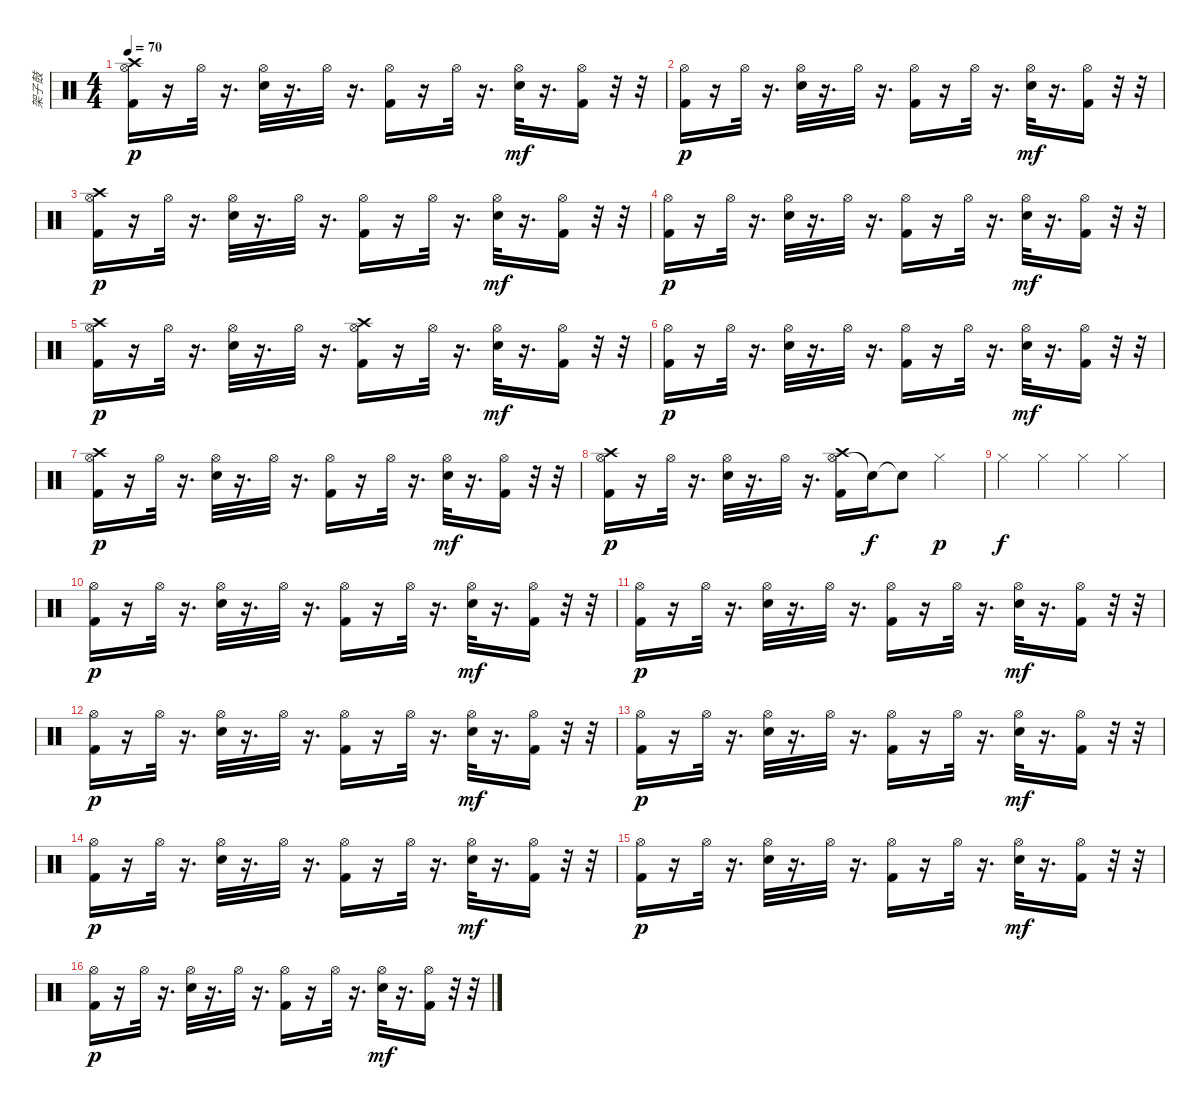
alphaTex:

\track ("架子鼓" "架子鼓") {instrument percussion}
\staff {score}
\articulation defaults
\ts (4 4)
\tempo 70
\clef neutral
\ks c
("Hi-Hat (open)" "Kick (hit) 2" "Crash high (hit)").16{dy p} r.16 "Hi-Hat (open)".32 r.16{d} ("Hi-Hat (open)" "Snare (hit) 2").32 r.16{d} "Hi-Hat (open)".32 r.16{d} ("Hi-Hat (open)" "Kick (hit) 2").16 r.16 "Hi-Hat (open)".32 r.16{d} ("Hi-Hat (open)" "Snare (hit) 2").32{dy mf} r.16{d} ("Hi-Hat (open)" "Kick (hit) 2").16 r.32 r.32 |
("Hi-Hat (open)" "Kick (hit) 2").16{dy p} r.16 "Hi-Hat (open)".32 r.16{d} ("Hi-Hat (open)" "Snare (hit) 2").32 r.16{d} "Hi-Hat (open)".32 r.16{d} ("Hi-Hat (open)" "Kick (hit) 2").16 r.16 "Hi-Hat (open)".32 r.16{d} ("Hi-Hat (open)" "Snare (hit) 2").32{dy mf} r.16{d} ("Hi-Hat (open)" "Kick (hit) 2").16 r.32 r.32 |
("Hi-Hat (open)" "Kick (hit) 2" "Crash high (hit)").16{dy p} r.16 "Hi-Hat (open)".32 r.16{d} ("Hi-Hat (open)" "Snare (hit) 2").32 r.16{d} "Hi-Hat (open)".32 r.16{d} ("Hi-Hat (open)" "Kick (hit) 2").16 r.16 "Hi-Hat (open)".32 r.16{d} ("Hi-Hat (open)" "Snare (hit) 2").32{dy mf} r.16{d} ("Hi-Hat (open)" "Kick (hit) 2").16 r.32 r.32 |
("Hi-Hat (open)" "Kick (hit) 2").16{dy p} r.16 "Hi-Hat (open)".32 r.16{d} ("Hi-Hat (open)" "Snare (hit) 2").32 r.16{d} "Hi-Hat (open)".32 r.16{d} ("Hi-Hat (open)" "Kick (hit) 2").16 r.16 "Hi-Hat (open)".32 r.16{d} ("Hi-Hat (open)" "Snare (hit) 2").32{dy mf} r.16{d} ("Hi-Hat (open)" "Kick (hit) 2").16 r.32 r.32 |
("Hi-Hat (open)" "Kick (hit) 2" "Crash high (hit)").16{dy p} r.16 "Hi-Hat (open)".32 r.16{d} ("Hi-Hat (open)" "Snare (hit) 2").32 r.16{d} "Hi-Hat (open)".32 r.16{d} ("Hi-Hat (open)" "Kick (hit) 2" "Crash high (hit)").16 r.16 "Hi-Hat (open)".32 r.16{d} ("Hi-Hat (open)" "Snare (hit) 2").32{dy mf} r.16{d} ("Hi-Hat (open)" "Kick (hit) 2").16 r.32 r.32 |
("Hi-Hat (open)" "Kick (hit) 2").16{dy p} r.16 "Hi-Hat (open)".32 r.16{d} ("Hi-Hat (open)" "Snare (hit) 2").32 r.16{d} "Hi-Hat (open)".32 r.16{d} ("Hi-Hat (open)" "Kick (hit) 2").16 r.16 "Hi-Hat (open)".32 r.16{d} ("Hi-Hat (open)" "Snare (hit) 2").32{dy mf} r.16{d} ("Hi-Hat (open)" "Kick (hit) 2").16 r.32 r.32 |
("Hi-Hat (open)" "Kick (hit) 2" "Crash high (hit)").16{dy p} r.16 "Hi-Hat (open)".32 r.16{d} ("Hi-Hat (open)" "Snare (hit) 2").32 r.16{d} "Hi-Hat (open)".32 r.16{d} ("Hi-Hat (open)" "Kick (hit) 2").16 r.16 "Hi-Hat (open)".32 r.16{d} ("Hi-Hat (open)" "Snare (hit) 2").32{dy mf} r.16{d} ("Hi-Hat (open)" "Kick (hit) 2").16 r.32 r.32 |
("Hi-Hat (open)" "Kick (hit) 2" "Crash high (hit)").16{dy p} r.16 "Hi-Hat (open)".32 r.16{d} ("Hi-Hat (open)" "Snare (hit) 2").32 r.16{d} "Hi-Hat (open)".32 r.16{d} ("Hi-Hat (open)" "Kick (hit) 2" "Crash high (hit)").16 "Snare (hit)"{t}.16{dy f} "Snare (hit)"{t}.8 "Hi-Hat (closed)".4{dy p} |
"Hi-Hat (closed)".4{dy f} "Hi-Hat (closed)".4 "Hi-Hat (closed)".4 "Hi-Hat (closed)".4 |
("Hi-Hat (open)" "Kick (hit) 2").16{dy p} r.16 "Hi-Hat (open)".32 r.16{d} ("Hi-Hat (open)" "Snare (hit) 2").32 r.16{d} "Hi-Hat (open)".32 r.16{d} ("Hi-Hat (open)" "Kick (hit) 2").16 r.16 "Hi-Hat (open)".32 r.16{d} ("Hi-Hat (open)" "Snare (hit) 2").32{dy mf} r.16{d} ("Hi-Hat (open)" "Kick (hit) 2").16 r.32 r.32 |
("Hi-Hat (open)" "Kick (hit) 2").16{dy p} r.16 "Hi-Hat (open)".32 r.16{d} ("Hi-Hat (open)" "Snare (hit) 2").32 r.16{d} "Hi-Hat (open)".32 r.16{d} ("Hi-Hat (open)" "Kick (hit) 2").16 r.16 "Hi-Hat (open)".32 r.16{d} ("Hi-Hat (open)" "Snare (hit) 2").32{dy mf} r.16{d} ("Hi-Hat (open)" "Kick (hit) 2").16 r.32 r.32 |
("Hi-Hat (open)" "Kick (hit) 2").16{dy p} r.16 "Hi-Hat (open)".32 r.16{d} ("Hi-Hat (open)" "Snare (hit) 2").32 r.16{d} "Hi-Hat (open)".32 r.16{d} ("Hi-Hat (open)" "Kick (hit) 2").16 r.16 "Hi-Hat (open)".32 r.16{d} ("Hi-Hat (open)" "Snare (hit) 2").32{dy mf} r.16{d} ("Hi-Hat (open)" "Kick (hit) 2").16 r.32 r.32 |
("Hi-Hat (open)" "Kick (hit) 2").16{dy p} r.16 "Hi-Hat (open)".32 r.16{d} ("Hi-Hat (open)" "Snare (hit) 2").32 r.16{d} "Hi-Hat (open)".32 r.16{d} ("Hi-Hat (open)" "Kick (hit) 2").16 r.16 "Hi-Hat (open)".32 r.16{d} ("Hi-Hat (open)" "Snare (hit) 2").32{dy mf} r.16{d} ("Hi-Hat (open)" "Kick (hit) 2").16 r.32 r.32 |
("Hi-Hat (open)" "Kick (hit) 2").16{dy p} r.16 "Hi-Hat (open)".32 r.16{d} ("Hi-Hat (open)" "Snare (hit) 2").32 r.16{d} "Hi-Hat (open)".32 r.16{d} ("Hi-Hat (open)" "Kick (hit) 2").16 r.16 "Hi-Hat (open)".32 r.16{d} ("Hi-Hat (open)" "Snare (hit) 2").32{dy mf} r.16{d} ("Hi-Hat (open)" "Kick (hit) 2").16 r.32 r.32 |
("Hi-Hat (open)" "Kick (hit) 2").16{dy p} r.16 "Hi-Hat (open)".32 r.16{d} ("Hi-Hat (open)" "Snare (hit) 2").32 r.16{d} "Hi-Hat (open)".32 r.16{d} ("Hi-Hat (open)" "Kick (hit) 2").16 r.16 "Hi-Hat (open)".32 r.16{d} ("Hi-Hat (open)" "Snare (hit) 2").32{dy mf} r.16{d} ("Hi-Hat (open)" "Kick (hit) 2").16 r.32 r.32 |
("Hi-Hat (open)" "Kick (hit) 2").16{dy p} r.16 "Hi-Hat (open)".32 r.16{d} ("Hi-Hat (open)" "Snare (hit) 2").32 r.16{d} "Hi-Hat (open)".32 r.16{d} ("Hi-Hat (open)" "Kick (hit) 2").16 r.16 "Hi-Hat (open)".32 r.16{d} ("Hi-Hat (open)" "Snare (hit) 2").32{dy mf} r.16{d} ("Hi-Hat (open)" "Kick (hit) 2").16 r.32 r.32
